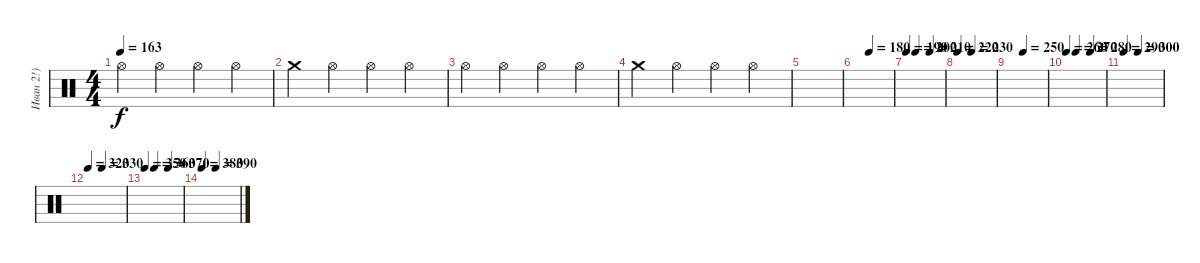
\track ("Иван 2!)" "Иван 2!)") {instrument percussion}
\staff {score}
\articulation defaults
\ts (4 4)
\tempo 163
\clef neutral
\ks c "Hi-Hat (open)".4{dy f} "Hi-Hat (open)".4 "Hi-Hat (open)".4 "Hi-Hat (open)".4
|
"Crash medium (hit)".4 "Hi-Hat (open)".4 "Hi-Hat (open)".4 "Hi-Hat (open)".4 |
"Hi-Hat (open)".4 "Hi-Hat (open)".4 "Hi-Hat (open)".4 "Hi-Hat (open)".4 |
"Crash medium (hit)".4 "Hi-Hat (open)".4 "Hi-Hat (open)".4 "Hi-Hat (open)".4 |
|
\tempo (180 0.375)
|
\tempo 190
\tempo (200 0.25)
\tempo (210 0.625)
|
\tempo 220
\tempo (230 0.375)
|
\tempo (250 0.375)
|
\tempo 260
\tempo (270 0.25)
\tempo (280 0.625)
|
\tempo 290
\tempo (300 0.375)
|
\tempo 320
\tempo (330 0.375)
|
\tempo 350
\tempo (360 0.25)
\tempo (370 0.625)
|
\tempo 380
\tempo (390 0.375)
